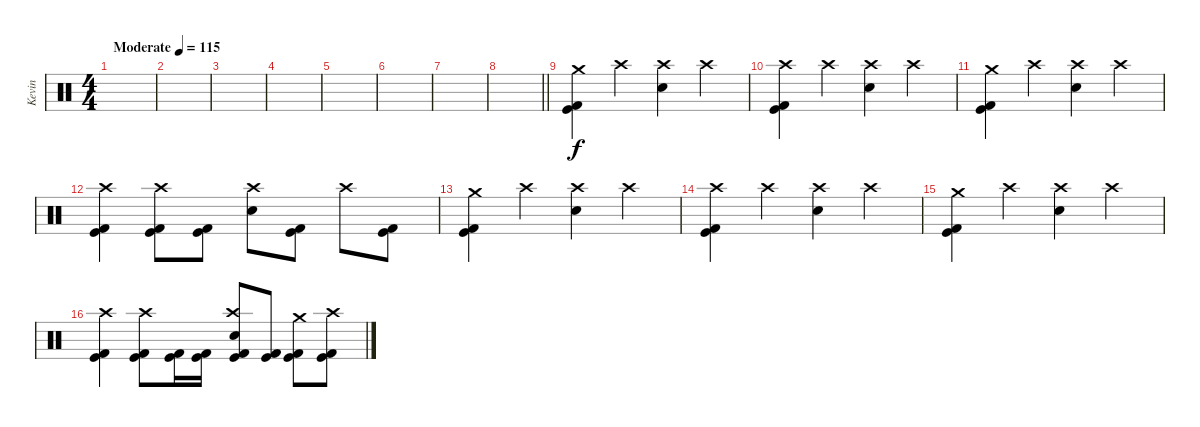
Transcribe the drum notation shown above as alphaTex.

\track ("Kevin" "Kevin") {instrument percussion}
\staff {score}
\articulation defaults
\ts (4 4)
\tempo (115 "Moderate")
\clef neutral
\ks c
|
|
|
|
|
|
|
\barLineRight lightlight
|
\section ("" "")
("Crash medium (hit)" "Kick (hit)" "Kick (hit) 2").4 "Crash high (hit)".4 ("Crash high (hit)" "Electric Snare (hit)").4 "Crash high (hit)".4 |
("Crash high (hit)" "Kick (hit)" "Kick (hit) 2").4 "Crash high (hit)".4 ("Crash high (hit)" "Electric Snare (hit)").4 "Crash high (hit)".4 |
("Crash medium (hit)" "Kick (hit)" "Kick (hit) 2").4 "Crash high (hit)".4 ("Crash high (hit)" "Electric Snare (hit)").4 "Crash high (hit)".4 |
("Crash high (hit)" "Kick (hit)" "Kick (hit) 2").4 ("Crash high (hit)" "Kick (hit)" "Kick (hit) 2").8 ("Kick (hit)" "Kick (hit) 2").8 ("Crash high (hit)" "Electric Snare (hit)").8 ("Kick (hit)" "Kick (hit) 2").8 "Crash high (hit)".8 ("Kick (hit)" "Kick (hit) 2").8 |
("Crash medium (hit)" "Kick (hit)" "Kick (hit) 2").4 "Crash high (hit)".4 ("Crash high (hit)" "Electric Snare (hit)").4 "Crash high (hit)".4 |
("Crash high (hit)" "Kick (hit)" "Kick (hit) 2").4 "Crash high (hit)".4 ("Crash high (hit)" "Electric Snare (hit)").4 "Crash high (hit)".4 |
("Crash medium (hit)" "Kick (hit)" "Kick (hit) 2").4 "Crash high (hit)".4 ("Crash high (hit)" "Electric Snare (hit)").4 "Crash high (hit)".4 |
("Crash high (hit)" "Kick (hit)" "Kick (hit) 2").4 ("Crash high (hit)" "Kick (hit)" "Kick (hit) 2").8 ("Kick (hit)" "Kick (hit) 2").16 ("Kick (hit)" "Kick (hit) 2").16 ("Crash high (hit)" "Electric Snare (hit)" "Kick (hit)" "Kick (hit) 2").8 ("Kick (hit)" "Kick (hit) 2").8 ("Crash medium (hit)" "Kick (hit)" "Kick (hit) 2").8 ("Crash high (hit)" "Kick (hit)" "Kick (hit) 2").8
